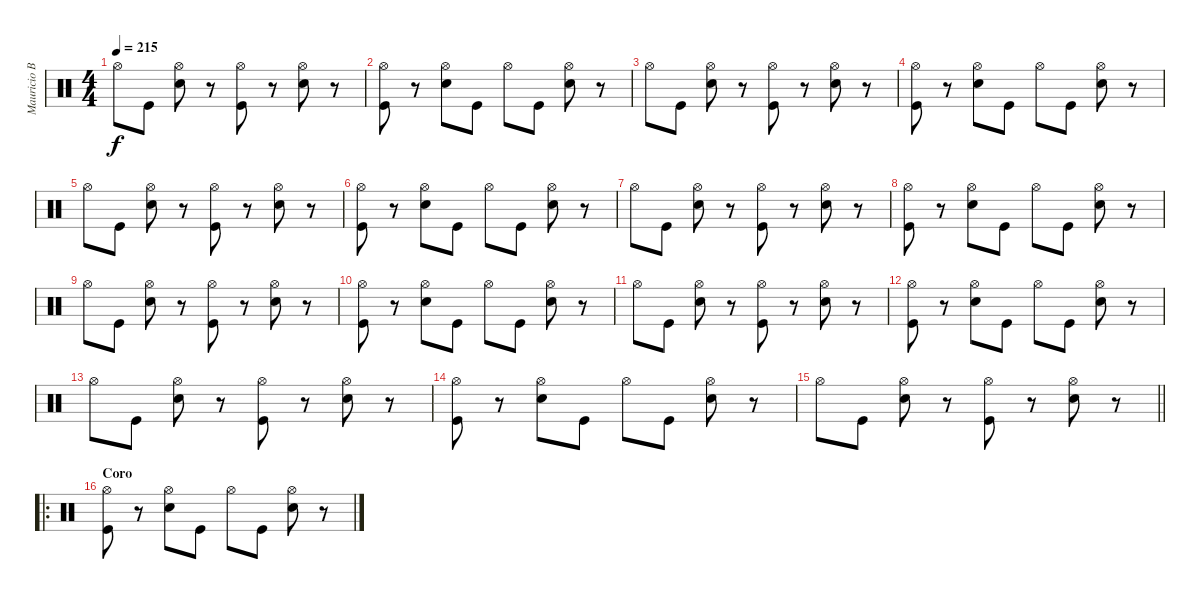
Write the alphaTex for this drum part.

\track ("Mauricio Basualto" "Mauricio B") {instrument percussion}
\staff {score}
\articulation defaults
\ts (4 4)
\tempo 215
\clef neutral
\ks c "Hi-Hat (open)".8{dy f} "Kick (hit)".8
("Hi-Hat (open)" "Electric Snare (hit)").8 r.8 ("Hi-Hat (open)" "Kick (hit)").8 r.8 ("Hi-Hat (open)" "Electric Snare (hit)").8 r.8 |
("Hi-Hat (open)" "Kick (hit)").8 r.8 ("Hi-Hat (open)" "Electric Snare (hit)").8 "Kick (hit)".8 "Hi-Hat (open)".8 "Kick (hit)".8 ("Hi-Hat (open)" "Electric Snare (hit)").8 r.8 |
"Hi-Hat (open)".8 "Kick (hit)".8 ("Hi-Hat (open)" "Electric Snare (hit)").8 r.8 ("Hi-Hat (open)" "Kick (hit)").8 r.8 ("Hi-Hat (open)" "Electric Snare (hit)").8 r.8 |
("Hi-Hat (open)" "Kick (hit)").8 r.8 ("Hi-Hat (open)" "Electric Snare (hit)").8 "Kick (hit)".8 "Hi-Hat (open)".8 "Kick (hit)".8 ("Hi-Hat (open)" "Electric Snare (hit)").8 r.8 |
"Hi-Hat (open)".8 "Kick (hit)".8 ("Hi-Hat (open)" "Electric Snare (hit)").8 r.8 ("Hi-Hat (open)" "Kick (hit)").8 r.8 ("Hi-Hat (open)" "Electric Snare (hit)").8 r.8 |
("Hi-Hat (open)" "Kick (hit)").8 r.8 ("Hi-Hat (open)" "Electric Snare (hit)").8 "Kick (hit)".8 "Hi-Hat (open)".8 "Kick (hit)".8 ("Hi-Hat (open)" "Electric Snare (hit)").8 r.8 |
"Hi-Hat (open)".8 "Kick (hit)".8 ("Hi-Hat (open)" "Electric Snare (hit)").8 r.8 ("Hi-Hat (open)" "Kick (hit)").8 r.8 ("Hi-Hat (open)" "Electric Snare (hit)").8 r.8 |
("Hi-Hat (open)" "Kick (hit)").8 r.8 ("Hi-Hat (open)" "Electric Snare (hit)").8 "Kick (hit)".8 "Hi-Hat (open)".8 "Kick (hit)".8 ("Hi-Hat (open)" "Electric Snare (hit)").8 r.8 |
"Hi-Hat (open)".8 "Kick (hit)".8 ("Hi-Hat (open)" "Electric Snare (hit)").8 r.8 ("Hi-Hat (open)" "Kick (hit)").8 r.8 ("Hi-Hat (open)" "Electric Snare (hit)").8 r.8 |
("Hi-Hat (open)" "Kick (hit)").8 r.8 ("Hi-Hat (open)" "Electric Snare (hit)").8 "Kick (hit)".8 "Hi-Hat (open)".8 "Kick (hit)".8 ("Hi-Hat (open)" "Electric Snare (hit)").8 r.8 |
"Hi-Hat (open)".8 "Kick (hit)".8 ("Hi-Hat (open)" "Electric Snare (hit)").8 r.8 ("Hi-Hat (open)" "Kick (hit)").8 r.8 ("Hi-Hat (open)" "Electric Snare (hit)").8 r.8 |
("Hi-Hat (open)" "Kick (hit)").8 r.8 ("Hi-Hat (open)" "Electric Snare (hit)").8 "Kick (hit)".8 "Hi-Hat (open)".8 "Kick (hit)".8 ("Hi-Hat (open)" "Electric Snare (hit)").8 r.8 |
"Hi-Hat (open)".8 "Kick (hit)".8 ("Hi-Hat (open)" "Electric Snare (hit)").8 r.8 ("Hi-Hat (open)" "Kick (hit)").8 r.8 ("Hi-Hat (open)" "Electric Snare (hit)").8 r.8 |
("Hi-Hat (open)" "Kick (hit)").8 r.8 ("Hi-Hat (open)" "Electric Snare (hit)").8 "Kick (hit)".8 "Hi-Hat (open)".8 "Kick (hit)".8 ("Hi-Hat (open)" "Electric Snare (hit)").8 r.8 |
\barLineRight lightlight "Hi-Hat (open)".8 "Kick (hit)".8
("Hi-Hat (open)" "Electric Snare (hit)").8 r.8 ("Hi-Hat (open)" "Kick (hit)").8 r.8 ("Hi-Hat (open)" "Electric Snare (hit)").8 r.8 |
\ro
\section ("" "Coro")
("Hi-Hat (open)" "Kick (hit)").8 r.8 ("Hi-Hat (open)" "Electric Snare (hit)").8 "Kick (hit)".8 "Hi-Hat (open)".8 "Kick (hit)".8 ("Hi-Hat (open)" "Electric Snare (hit)").8 r.8
